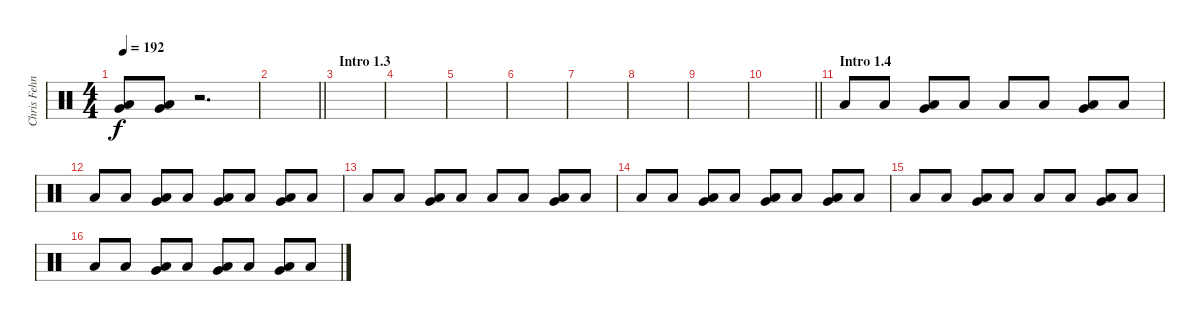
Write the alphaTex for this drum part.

\track ("Chris Fehn" "Chris Fehn") {instrument percussion}
\staff {score}
\articulation defaults
\ts (4 4)
\tempo 192
\clef neutral
\ks c
("Very Low Tom (hit)" "Low Floor Tom (hit)").8{dy f} ("Very Low Tom (hit)" "Low Floor Tom (hit)").8 r.2{d} |
\barLineRight lightlight
|
\section ("" "Intro 1.3")
|
|
|
|
|
|
|
\barLineRight lightlight
|
\section ("" "Intro 1.4")
"Low Floor Tom (hit)".8 "Low Floor Tom (hit)".8 ("Very Low Tom (hit)" "Low Floor Tom (hit)").8 "Low Floor Tom (hit)".8 "Low Floor Tom (hit)".8 "Low Floor Tom (hit)".8 ("Very Low Tom (hit)" "Low Floor Tom (hit)").8 "Low Floor Tom (hit)".8 |
"Low Floor Tom (hit)".8 "Low Floor Tom (hit)".8 ("Very Low Tom (hit)" "Low Floor Tom (hit)").8 "Low Floor Tom (hit)".8 ("Very Low Tom (hit)" "Low Floor Tom (hit)").8 "Low Floor Tom (hit)".8 ("Very Low Tom (hit)" "Low Floor Tom (hit)").8 "Low Floor Tom (hit)".8 |
"Low Floor Tom (hit)".8 "Low Floor Tom (hit)".8 ("Very Low Tom (hit)" "Low Floor Tom (hit)").8 "Low Floor Tom (hit)".8 "Low Floor Tom (hit)".8 "Low Floor Tom (hit)".8 ("Very Low Tom (hit)" "Low Floor Tom (hit)").8 "Low Floor Tom (hit)".8 |
"Low Floor Tom (hit)".8 "Low Floor Tom (hit)".8 ("Very Low Tom (hit)" "Low Floor Tom (hit)").8 "Low Floor Tom (hit)".8 ("Very Low Tom (hit)" "Low Floor Tom (hit)").8 "Low Floor Tom (hit)".8 ("Very Low Tom (hit)" "Low Floor Tom (hit)").8 "Low Floor Tom (hit)".8 |
"Low Floor Tom (hit)".8 "Low Floor Tom (hit)".8 ("Very Low Tom (hit)" "Low Floor Tom (hit)").8 "Low Floor Tom (hit)".8 "Low Floor Tom (hit)".8 "Low Floor Tom (hit)".8 ("Very Low Tom (hit)" "Low Floor Tom (hit)").8 "Low Floor Tom (hit)".8 |
"Low Floor Tom (hit)".8 "Low Floor Tom (hit)".8 ("Very Low Tom (hit)" "Low Floor Tom (hit)").8 "Low Floor Tom (hit)".8 ("Very Low Tom (hit)" "Low Floor Tom (hit)").8 "Low Floor Tom (hit)".8 ("Very Low Tom (hit)" "Low Floor Tom (hit)").8 "Low Floor Tom (hit)".8
